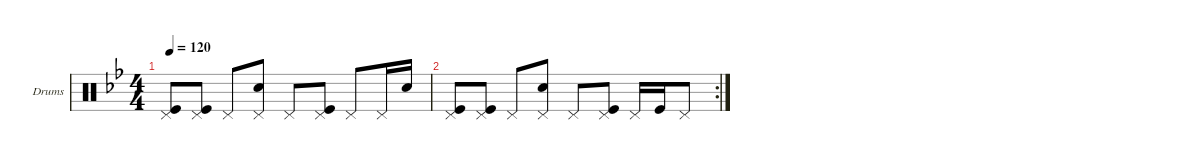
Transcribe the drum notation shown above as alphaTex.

\defaultSystemsLayout 4
\hideDynamics
\bracketExtendMode nobrackets
\firstSystemTrackNameOrientation horizontal
\otherSystemsTrackNameOrientation horizontal
\track ("Drumkit" "Drums") {instrument percussion}
\staff {score}
\articulation defaults
\ts (4 4)
\tempo 120
\clef neutral
\ks bb
("Pedal Hi-Hat (hit)" "Kick (hit)").8{dy mf} ("Pedal Hi-Hat (hit)" "Kick (hit)").8 "Pedal Hi-Hat (hit)".8 ("Pedal Hi-Hat (hit)" "Snare (hit) 2").8 "Pedal Hi-Hat (hit)".8 ("Pedal Hi-Hat (hit)" "Kick (hit)").8 "Pedal Hi-Hat (hit)".8 "Pedal Hi-Hat (hit)".16 "Snare (hit) 2".16 |
\rc 2
("Pedal Hi-Hat (hit)" "Kick (hit)").8 ("Pedal Hi-Hat (hit)" "Kick (hit)").8 "Pedal Hi-Hat (hit)".8 ("Pedal Hi-Hat (hit)" "Snare (hit) 2").8 "Pedal Hi-Hat (hit)".8 ("Pedal Hi-Hat (hit)" "Kick (hit)").8 "Pedal Hi-Hat (hit)".16 "Kick (hit)".16 "Pedal Hi-Hat (hit)".8
